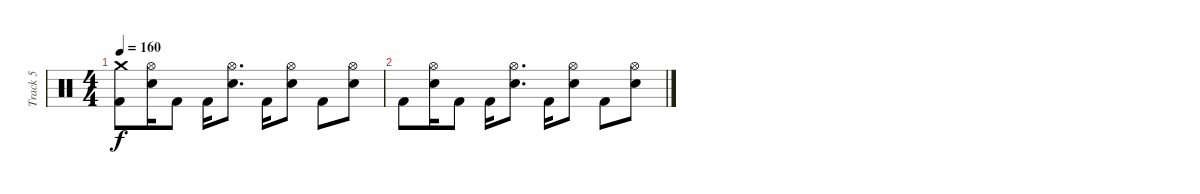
\track ("Track 5" "Track 5") {instrument percussion}
\staff {score}
\articulation defaults
\ts (4 4)
\tempo 160
\clef neutral
\ks c
("Crash medium (hit)" "Kick (hit) 2").8{dy f} ("Hi-Hat (open)" "Snare (hit) 2").16 "Kick (hit) 2".8 "Kick (hit) 2".16 ("Hi-Hat (open)" "Snare (hit) 2").8{d} "Kick (hit) 2".16 ("Hi-Hat (open)" "Snare (hit) 2").8 "Kick (hit) 2".8 ("Hi-Hat (open)" "Snare (hit) 2").8 |
"Kick (hit) 2".8 ("Hi-Hat (open)" "Snare (hit) 2").16 "Kick (hit) 2".8 "Kick (hit) 2".16 ("Hi-Hat (open)" "Snare (hit) 2").8{d} "Kick (hit) 2".16 ("Hi-Hat (open)" "Snare (hit) 2").8 "Kick (hit) 2".8 ("Hi-Hat (open)" "Snare (hit) 2").8
